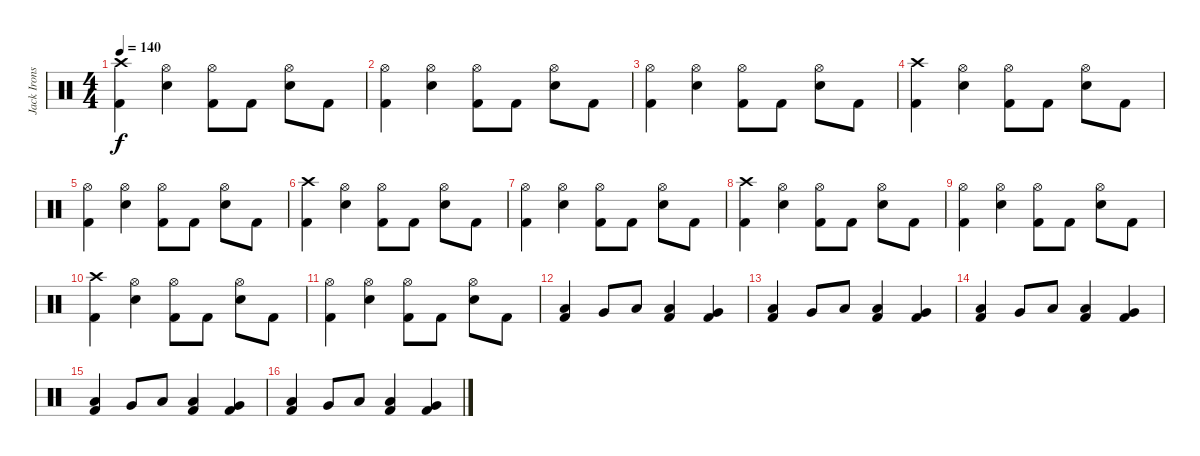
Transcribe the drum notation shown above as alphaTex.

\track ("Jack Irons" "Jack Irons") {instrument percussion}
\staff {score}
\articulation defaults
\ts (4 4)
\tempo 140
\clef neutral
\ks c
("Crash high (hit)" "Kick (hit) 2").4{dy f} ("Hi-Hat (open)" "Electric Snare (hit)").4 ("Hi-Hat (open)" "Kick (hit) 2").8 "Kick (hit) 2".8 ("Hi-Hat (open)" "Electric Snare (hit)").8 "Kick (hit) 2".8 |
("Hi-Hat (open)" "Kick (hit) 2").4 ("Hi-Hat (open)" "Electric Snare (hit)").4 ("Hi-Hat (open)" "Kick (hit) 2").8 "Kick (hit) 2".8 ("Hi-Hat (open)" "Electric Snare (hit)").8 "Kick (hit) 2".8 |
("Hi-Hat (open)" "Kick (hit) 2").4 ("Hi-Hat (open)" "Electric Snare (hit)").4 ("Hi-Hat (open)" "Kick (hit) 2").8 "Kick (hit) 2".8 ("Hi-Hat (open)" "Electric Snare (hit)").8 "Kick (hit) 2".8 |
("Crash high (hit)" "Kick (hit) 2").4 ("Hi-Hat (open)" "Electric Snare (hit)").4 ("Hi-Hat (open)" "Kick (hit) 2").8 "Kick (hit) 2".8 ("Hi-Hat (open)" "Electric Snare (hit)").8 "Kick (hit) 2".8 |
("Hi-Hat (open)" "Kick (hit) 2").4 ("Hi-Hat (open)" "Electric Snare (hit)").4 ("Hi-Hat (open)" "Kick (hit) 2").8 "Kick (hit) 2".8 ("Hi-Hat (open)" "Electric Snare (hit)").8 "Kick (hit) 2".8 |
("Crash high (hit)" "Kick (hit) 2").4 ("Hi-Hat (open)" "Electric Snare (hit)").4 ("Hi-Hat (open)" "Kick (hit) 2").8 "Kick (hit) 2".8 ("Hi-Hat (open)" "Electric Snare (hit)").8 "Kick (hit) 2".8 |
("Hi-Hat (open)" "Kick (hit) 2").4 ("Hi-Hat (open)" "Electric Snare (hit)").4 ("Hi-Hat (open)" "Kick (hit) 2").8 "Kick (hit) 2".8 ("Hi-Hat (open)" "Electric Snare (hit)").8 "Kick (hit) 2".8 |
("Crash high (hit)" "Kick (hit) 2").4 ("Hi-Hat (open)" "Electric Snare (hit)").4 ("Hi-Hat (open)" "Kick (hit) 2").8 "Kick (hit) 2".8 ("Hi-Hat (open)" "Electric Snare (hit)").8 "Kick (hit) 2".8 |
("Hi-Hat (open)" "Kick (hit) 2").4 ("Hi-Hat (open)" "Electric Snare (hit)").4 ("Hi-Hat (open)" "Kick (hit) 2").8 "Kick (hit) 2".8 ("Hi-Hat (open)" "Electric Snare (hit)").8 "Kick (hit) 2".8 |
("Crash high (hit)" "Kick (hit) 2").4 ("Hi-Hat (open)" "Electric Snare (hit)").4 ("Hi-Hat (open)" "Kick (hit) 2").8 "Kick (hit) 2".8 ("Hi-Hat (open)" "Electric Snare (hit)").8 "Kick (hit) 2".8 |
("Hi-Hat (open)" "Kick (hit) 2").4 ("Hi-Hat (open)" "Electric Snare (hit)").4 ("Hi-Hat (open)" "Kick (hit) 2").8 "Kick (hit) 2".8 ("Hi-Hat (open)" "Electric Snare (hit)").8 "Kick (hit) 2".8 |
("Low Floor Tom (hit)" "Kick (hit) 2").4 "Very Low Tom (hit)".8 "Low Tom (hit)".8 ("Low Floor Tom (hit)" "Kick (hit) 2").4 ("Very Low Tom (hit)" "Kick (hit) 2").4 |
("Low Floor Tom (hit)" "Kick (hit) 2").4 "Very Low Tom (hit)".8 "Low Tom (hit)".8 ("Low Floor Tom (hit)" "Kick (hit) 2").4 ("Very Low Tom (hit)" "Kick (hit) 2").4 |
("Low Floor Tom (hit)" "Kick (hit) 2").4 "Very Low Tom (hit)".8 "Low Tom (hit)".8 ("Low Floor Tom (hit)" "Kick (hit) 2").4 ("Very Low Tom (hit)" "Kick (hit) 2").4 |
("Low Floor Tom (hit)" "Kick (hit) 2").4 "Very Low Tom (hit)".8 "Low Tom (hit)".8 ("Low Floor Tom (hit)" "Kick (hit) 2").4 ("Very Low Tom (hit)" "Kick (hit) 2").4 |
("Low Floor Tom (hit)" "Kick (hit) 2").4 "Very Low Tom (hit)".8 "Low Tom (hit)".8 ("Low Floor Tom (hit)" "Kick (hit) 2").4 ("Very Low Tom (hit)" "Kick (hit) 2").4
